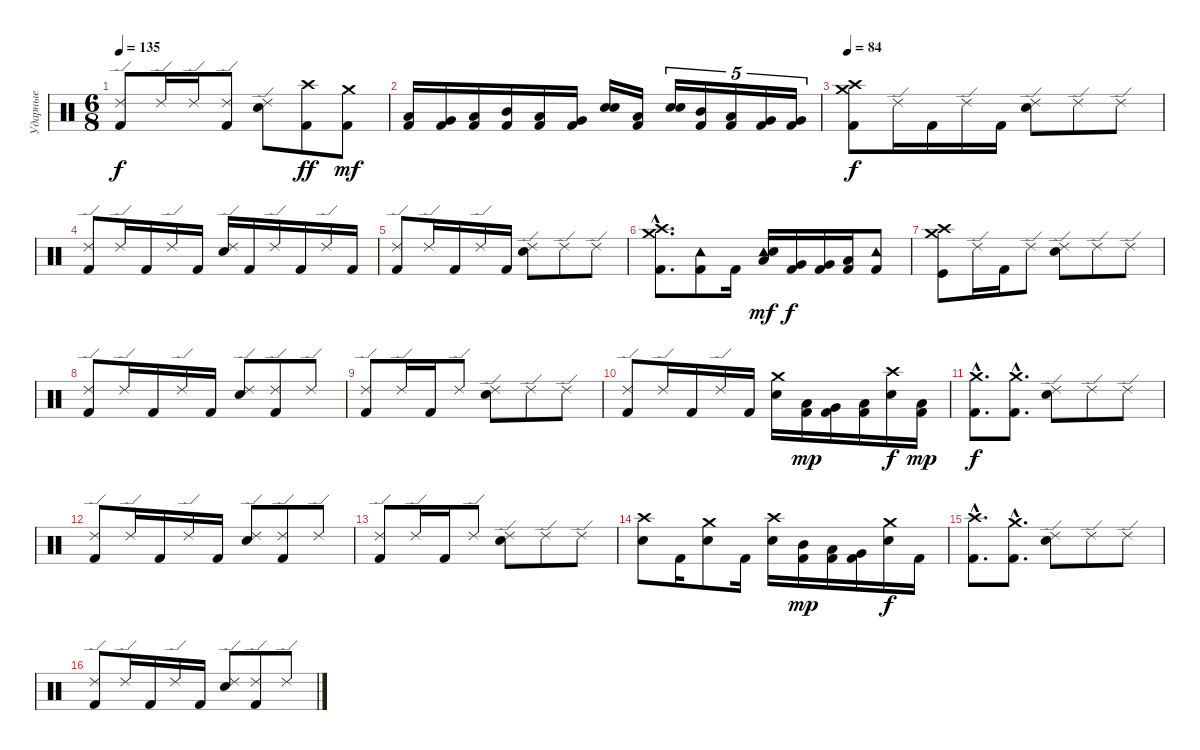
\track ("Ударные" "Ударные") {instrument percussion}
\staff {score}
\articulation defaults
\ts (6 8)
\tempo 135
\clef neutral
\ks c
("Ride (edge) 2" "Kick (hit) 2").8{dy f} "Ride (edge) 2".16 "Ride (edge) 2".16 ("Ride (edge) 2" "Kick (hit) 2").8 ("Ride (edge) 2" "Electric Snare (hit)").8 ("Crash high (hit)" "Kick (hit) 2").8{dy ff} ("Crash medium (hit)" "Kick (hit) 2").8{dy mf} |
("Low Tom (hit)" "Kick (hit) 2").16 ("Very Low Tom (hit)" "Kick (hit) 2").16 ("Low Tom (hit)" "Kick (hit) 2").16 ("Mid Tom (hit)" "Kick (hit) 2").16 ("Low Tom (hit)" "Kick (hit) 2").16 ("Very Low Tom (hit)" "Kick (hit) 2").16 ("Snare (hit) 2" "Electric Snare (hit)").16 ("Low Floor Tom (hit)" "Kick (hit) 2").16 ("Snare (hit) 2" "Electric Snare (hit)").16{tu (5 4)} ("Mid Tom (hit)" "Kick (hit) 2").16{tu (5 4)} ("Low Tom (hit)" "Kick (hit) 2").16{tu (5 4)} ("Very Low Tom (hit)" "Kick (hit) 2").16{tu (5 4)} ("Very Low Tom (hit)" "Kick (hit) 2").16{tu (5 4)} |
\section ("" "")
\tempo 84
("Crash medium (hit)" "Crash high (hit)" "Kick (hit) 2").8{dy f} "Ride (edge) 2".16 "Kick (hit) 2".16 "Ride (edge) 2".16 "Kick (hit) 2".16 ("Ride (edge) 2" "Electric Snare (hit)").8 "Ride (edge) 2".8 "Ride (edge) 2".8 |
("Ride (edge) 2" "Kick (hit) 2").8 "Ride (edge) 2".16 "Kick (hit) 2".16 "Ride (edge) 2".16 "Kick (hit) 2".16 ("Ride (edge) 2" "Electric Snare (hit)").16 "Kick (hit) 2".16 "Ride (edge) 2".16 "Kick (hit) 2".16 "Ride (edge) 2".16 "Kick (hit) 2".16 |
("Ride (edge) 2" "Kick (hit) 2").8 "Ride (edge) 2".16 "Kick (hit) 2".16 "Ride (edge) 2".16 "Kick (hit) 2".16 ("Ride (edge) 2" "Electric Snare (hit)").8 "Ride (edge) 2".8 "Ride (edge) 2".8 |
("Crash high (hit)"{hac} "Crash medium (hit)"{hac} "Kick (hit) 2"{hac}).8{d} ("Tambourine (hit)" "Kick (hit) 2").8 "Kick (hit) 2".16 ("Tambourine (hit)" "Low Tom (hit)" "Electric Snare (hit)").16{dy mf} ("Very Low Tom (hit)" "Kick (hit) 2").16{dy f} ("Very Low Tom (hit)" "Kick (hit) 2").16 ("Low Floor Tom (hit)" "Kick (hit) 2").16 ("Tambourine (hit)" "Kick (hit) 2").8 |
("Crash medium (hit)" "Crash high (hit)" "Kick (hit)").8 "Ride (edge) 2".16 "Kick (hit) 2".16 "Ride (edge) 2".8 ("Ride (edge) 2" "Electric Snare (hit)").8 "Ride (edge) 2".8 "Ride (edge) 2".8 |
("Ride (edge) 2" "Kick (hit) 2").8 "Ride (edge) 2".16 "Kick (hit) 2".16 "Ride (edge) 2".16 "Kick (hit) 2".16 ("Ride (edge) 2" "Electric Snare (hit)").8 ("Ride (edge) 2" "Kick (hit) 2").8 "Ride (edge) 2".8 |
("Ride (edge) 2" "Kick (hit) 2").8 "Ride (edge) 2".16 "Kick (hit) 2".16 "Ride (edge) 2".8 ("Ride (edge) 2" "Electric Snare (hit)").8 "Ride (edge) 2".8 "Ride (edge) 2".8 |
("Ride (edge) 2" "Kick (hit) 2").8 "Ride (edge) 2".16 "Kick (hit) 2".16 "Ride (edge) 2".16 "Kick (hit) 2".16 ("Crash medium (hit)" "Electric Snare (hit)").16 ("Low Tom (hit)" "Kick (hit) 2").16{dy mp} ("Very Low Tom (hit)" "Kick (hit) 2").16 ("Low Floor Tom (hit)" "Kick (hit) 2").16 ("Crash high (hit)" "Electric Snare (hit)").16{dy f} ("Low Tom (hit)" "Kick (hit) 2").16{dy mp} |
("Crash medium (hit)"{hac} "Kick (hit) 2"{hac}).8{d dy f} ("Crash medium (hit)"{hac} "Kick (hit) 2"{hac}).8{d} ("Ride (edge) 2" "Electric Snare (hit)").8 "Ride (edge) 2".8 "Ride (edge) 2".8 |
("Ride (edge) 2" "Kick (hit) 2").8 "Ride (edge) 2".16 "Kick (hit) 2".16 "Ride (edge) 2".16 "Kick (hit) 2".16 ("Ride (edge) 2" "Electric Snare (hit)").8 ("Ride (edge) 2" "Kick (hit) 2").8 "Ride (edge) 2".8 |
("Ride (edge) 2" "Kick (hit) 2").8 "Ride (edge) 2".16 "Kick (hit) 2".16 "Ride (edge) 2".8 ("Ride (edge) 2" "Electric Snare (hit)").8 "Ride (edge) 2".8 "Ride (edge) 2".8 |
("Crash high (hit)" "Electric Snare (hit)").8 "Kick (hit) 2".16 ("Crash medium (hit)" "Electric Snare (hit)").8 "Kick (hit) 2".16 ("Crash high (hit)" "Electric Snare (hit)").16 ("Mid Tom (hit)" "Kick (hit) 2").16{dy mp} ("Low Tom (hit)" "Kick (hit) 2").16 ("Very Low Tom (hit)" "Kick (hit) 2").16 ("Crash medium (hit)" "Electric Snare (hit)").16{dy f} "Kick (hit) 2".16 |
("Crash high (hit)"{hac} "Kick (hit) 2"{hac}).8{d} ("Crash medium (hit)"{hac} "Kick (hit) 2"{hac}).8{d} ("Ride (edge) 2" "Electric Snare (hit)").8 "Ride (edge) 2".8 "Ride (edge) 2".8 |
("Ride (edge) 2" "Kick (hit) 2").8 "Ride (edge) 2".16 "Kick (hit) 2".16 "Ride (edge) 2".16 "Kick (hit) 2".16 ("Ride (edge) 2" "Electric Snare (hit)").8 ("Ride (edge) 2" "Kick (hit) 2").8 "Ride (edge) 2".8
